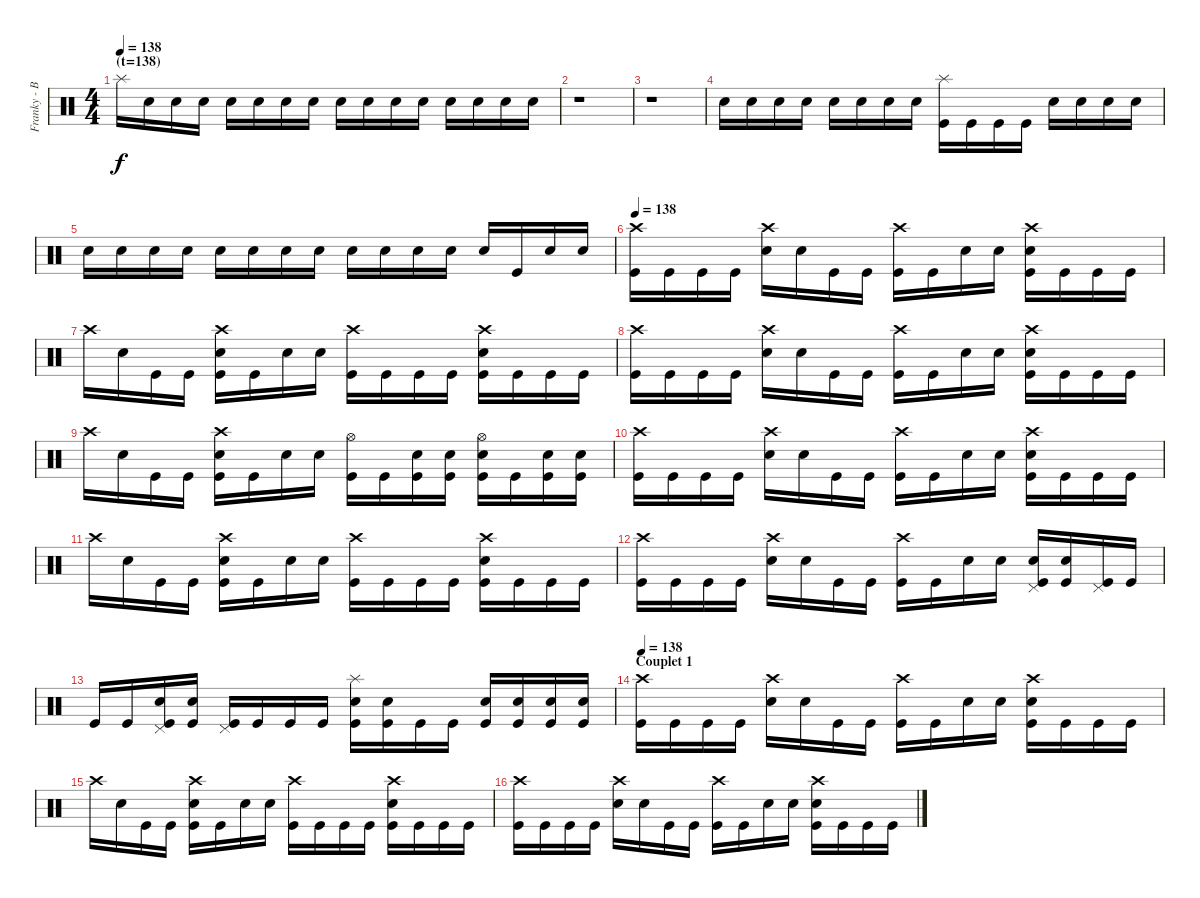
\track ("Franky - Batterie" "Franky - B") {instrument percussion}
\staff {score}
\articulation defaults
\ts (4 4)
\section ("" "(t=138)")
\tempo 138
\clef neutral
\ks c "Splash (hit)".16{dy f volume 16 balance 8} "Snare (hit)".16 "Snare (hit)".16 "Snare (hit)".16 "Snare (hit)".16 "Snare (hit)".16 "Snare (hit)".16 "Snare (hit)".16 "Snare (hit)".16 "Snare (hit)".16 "Snare (hit)".16 "Snare (hit)".16 "Snare (hit)".16 "Snare (hit)".16 "Snare (hit)".16 "Snare (hit)".16
|
r.1 |
r.1 |
"Snare (hit)".16 "Snare (hit)".16 "Snare (hit)".16 "Snare (hit)".16 "Snare (hit)".16 "Snare (hit)".16 "Snare (hit)".16 "Snare (hit)".16 ("Splash (hit)" "Kick (hit)").16 "Kick (hit)".16 "Kick (hit)".16 "Kick (hit)".16 "Electric Snare (hit)".16 "Electric Snare (hit)".16 "Electric Snare (hit)".16 "Electric Snare (hit)".16 |
"Snare (hit)".16 "Snare (hit)".16 "Snare (hit)".16 "Snare (hit)".16 "Snare (hit)".16 "Snare (hit)".16 "Snare (hit)".16 "Snare (hit)".16 "Snare (hit)".16 "Snare (hit)".16 "Snare (hit)".16 "Snare (hit)".16 "Electric Snare (hit)".16 "Kick (hit)".16 "Snare (hit)".16 "Snare (hit)".16 |
\section ("" "")
\tempo 138
("Crash high (hit)" "Kick (hit)").16{volume 16 balance 8} "Kick (hit)".16 "Kick (hit)".16 "Kick (hit)".16 ("Crash high (hit)" "Electric Snare (hit)").16 "Snare (hit)".16 "Kick (hit)".16 "Kick (hit)".16 ("Crash high (hit)" "Kick (hit)").16 "Kick (hit)".16 "Snare (hit)".16 "Snare (hit)".16 ("Crash high (hit)" "Electric Snare (hit)" "Kick (hit)").16 "Kick (hit)".16 "Kick (hit)".16 "Kick (hit)".16 |
"Crash high (hit)".16 "Snare (hit)".16 "Kick (hit)".16 "Kick (hit)".16 ("Crash high (hit)" "Electric Snare (hit)" "Kick (hit)").16 "Kick (hit)".16 "Snare (hit)".16 "Snare (hit)".16 ("Crash high (hit)" "Kick (hit)").16 "Kick (hit)".16 "Kick (hit)".16 "Kick (hit)".16 ("Crash high (hit)" "Electric Snare (hit)" "Kick (hit)").16 "Kick (hit)".16 "Kick (hit)".16 "Kick (hit)".16 |
("Crash high (hit)" "Kick (hit)").16 "Kick (hit)".16 "Kick (hit)".16 "Kick (hit)".16 ("Crash high (hit)" "Electric Snare (hit)").16 "Snare (hit)".16 "Kick (hit)".16 "Kick (hit)".16 ("Crash high (hit)" "Kick (hit)").16 "Kick (hit)".16 "Snare (hit)".16 "Snare (hit)".16 ("Crash high (hit)" "Electric Snare (hit)" "Kick (hit)").16 "Kick (hit)".16 "Kick (hit)".16 "Kick (hit)".16 |
"Crash high (hit)".16 "Snare (hit)".16 "Kick (hit)".16 "Kick (hit)".16 ("Crash high (hit)" "Electric Snare (hit)" "Kick (hit)").16 "Kick (hit)".16 "Snare (hit)".16 "Snare (hit)".16 ("Hi-Hat (open)" "Kick (hit)").16 "Kick (hit)".16 ("Electric Snare (hit)" "Kick (hit)").16 ("Electric Snare (hit)" "Kick (hit)").16 ("Hi-Hat (open)" "Electric Snare (hit)" "Kick (hit)").16 "Kick (hit)".16 ("Electric Snare (hit)" "Kick (hit)").16 ("Electric Snare (hit)" "Kick (hit)").16 |
("Crash high (hit)" "Kick (hit)").16 "Kick (hit)".16 "Kick (hit)".16 "Kick (hit)".16 ("Crash high (hit)" "Electric Snare (hit)").16 "Snare (hit)".16 "Kick (hit)".16 "Kick (hit)".16 ("Crash high (hit)" "Kick (hit)").16 "Kick (hit)".16 "Snare (hit)".16 "Snare (hit)".16 ("Crash high (hit)" "Electric Snare (hit)" "Kick (hit)").16 "Kick (hit)".16 "Kick (hit)".16 "Kick (hit)".16 |
"Crash high (hit)".16 "Snare (hit)".16 "Kick (hit)".16 "Kick (hit)".16 ("Crash high (hit)" "Electric Snare (hit)" "Kick (hit)").16 "Kick (hit)".16 "Snare (hit)".16 "Snare (hit)".16 ("Crash high (hit)" "Kick (hit)").16 "Kick (hit)".16 "Kick (hit)".16 "Kick (hit)".16 ("Crash high (hit)" "Electric Snare (hit)" "Kick (hit)").16 "Kick (hit)".16 "Kick (hit)".16 "Kick (hit)".16 |
("Crash high (hit)" "Kick (hit)").16 "Kick (hit)".16 "Kick (hit)".16 "Kick (hit)".16 ("Crash high (hit)" "Electric Snare (hit)").16 "Snare (hit)".16 "Kick (hit)".16 "Kick (hit)".16 ("Crash high (hit)" "Kick (hit)").16 "Kick (hit)".16 "Snare (hit)".16 "Snare (hit)".16 ("Pedal Hi-Hat (hit)" "Electric Snare (hit)" "Kick (hit)").16 ("Electric Snare (hit)" "Kick (hit)").16 ("Pedal Hi-Hat (hit)" "Kick (hit)").16 "Kick (hit)".16 |
"Kick (hit)".16 "Kick (hit)".16 ("Pedal Hi-Hat (hit)" "Electric Snare (hit)" "Kick (hit)").16 ("Electric Snare (hit)" "Kick (hit)").16 ("Pedal Hi-Hat (hit)" "Kick (hit)").16 "Kick (hit)".16 "Kick (hit)".16 "Kick (hit)".16 ("Splash (hit)" "Electric Snare (hit)" "Kick (hit)").16 ("Electric Snare (hit)" "Kick (hit)").16 "Kick (hit)".16 "Kick (hit)".16 ("Electric Snare (hit)" "Kick (hit)").16 ("Electric Snare (hit)" "Kick (hit)").16 ("Electric Snare (hit)" "Kick (hit)").16 ("Electric Snare (hit)" "Kick (hit)").16 |
\section ("" "Couplet 1")
\tempo 138
("Crash high (hit)" "Kick (hit)").16{volume 16 balance 8} "Kick (hit)".16 "Kick (hit)".16 "Kick (hit)".16 ("Crash high (hit)" "Electric Snare (hit)").16 "Snare (hit)".16 "Kick (hit)".16 "Kick (hit)".16 ("Crash high (hit)" "Kick (hit)").16 "Kick (hit)".16 "Snare (hit)".16 "Snare (hit)".16 ("Crash high (hit)" "Electric Snare (hit)" "Kick (hit)").16 "Kick (hit)".16 "Kick (hit)".16 "Kick (hit)".16 |
"Crash high (hit)".16 "Snare (hit)".16 "Kick (hit)".16 "Kick (hit)".16 ("Crash high (hit)" "Electric Snare (hit)" "Kick (hit)").16 "Kick (hit)".16 "Snare (hit)".16 "Snare (hit)".16 ("Crash high (hit)" "Kick (hit)").16 "Kick (hit)".16 "Kick (hit)".16 "Kick (hit)".16 ("Crash high (hit)" "Electric Snare (hit)" "Kick (hit)").16 "Kick (hit)".16 "Kick (hit)".16 "Kick (hit)".16 |
("Crash high (hit)" "Kick (hit)").16 "Kick (hit)".16 "Kick (hit)".16 "Kick (hit)".16 ("Crash high (hit)" "Electric Snare (hit)").16 "Snare (hit)".16 "Kick (hit)".16 "Kick (hit)".16 ("Crash high (hit)" "Kick (hit)").16 "Kick (hit)".16 "Snare (hit)".16 "Snare (hit)".16 ("Crash high (hit)" "Electric Snare (hit)" "Kick (hit)").16 "Kick (hit)".16 "Kick (hit)".16 "Kick (hit)".16
